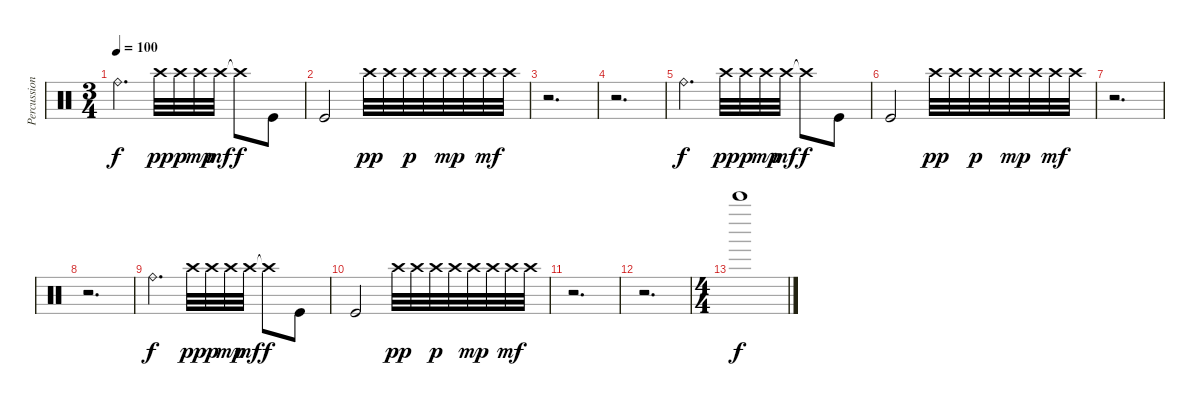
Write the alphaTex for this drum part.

\track ("Percussion" "Percussion") {instrument percussion}
\staff
\articulation defaults
\ts (3 4)
\tempo 100
\clef neutral
\ks c "Ride (bell)".4{d dy f} "Crash high (hit)".32{dy pp} "Crash high (hit)".32{dy p} "Crash high (hit)".32{dy mp} "Crash high (hit)".32{dy mf} "Crash high (hit)"{t}.8{dy f} "Kick (hit)".8
|
"Kick (hit)".2 "Crash high (hit)".32{dy pp} "Crash high (hit)".32 "Crash high (hit)".32{dy p} "Crash high (hit)".32 "Crash high (hit)".32{dy mp} "Crash high (hit)".32 "Crash high (hit)".32{dy mf} "Crash high (hit)".32 |
r.2{d} |
r.2{d} |
"Ride (bell)".4{d dy f} "Crash high (hit)".32{dy pp} "Crash high (hit)".32{dy p} "Crash high (hit)".32{dy mp} "Crash high (hit)".32{dy mf} "Crash high (hit)"{t}.8{dy f} "Kick (hit)".8 |
"Kick (hit)".2 "Crash high (hit)".32{dy pp} "Crash high (hit)".32 "Crash high (hit)".32{dy p} "Crash high (hit)".32 "Crash high (hit)".32{dy mp} "Crash high (hit)".32 "Crash high (hit)".32{dy mf} "Crash high (hit)".32 |
r.2{d} |
r.2{d} |
"Ride (bell)".4{d dy f} "Crash high (hit)".32{dy pp} "Crash high (hit)".32{dy p} "Crash high (hit)".32{dy mp} "Crash high (hit)".32{dy mf} "Crash high (hit)"{t}.8{dy f} "Kick (hit)".8 |
"Kick (hit)".2 "Crash high (hit)".32{dy pp} "Crash high (hit)".32 "Crash high (hit)".32{dy p} "Crash high (hit)".32 "Crash high (hit)".32{dy mp} "Crash high (hit)".32 "Crash high (hit)".32{dy mf} "Crash high (hit)".32 |
r.2{d} |
r.2{d} |
\ts (4 4)
"Bell Tree (hit)".1{dy f}
